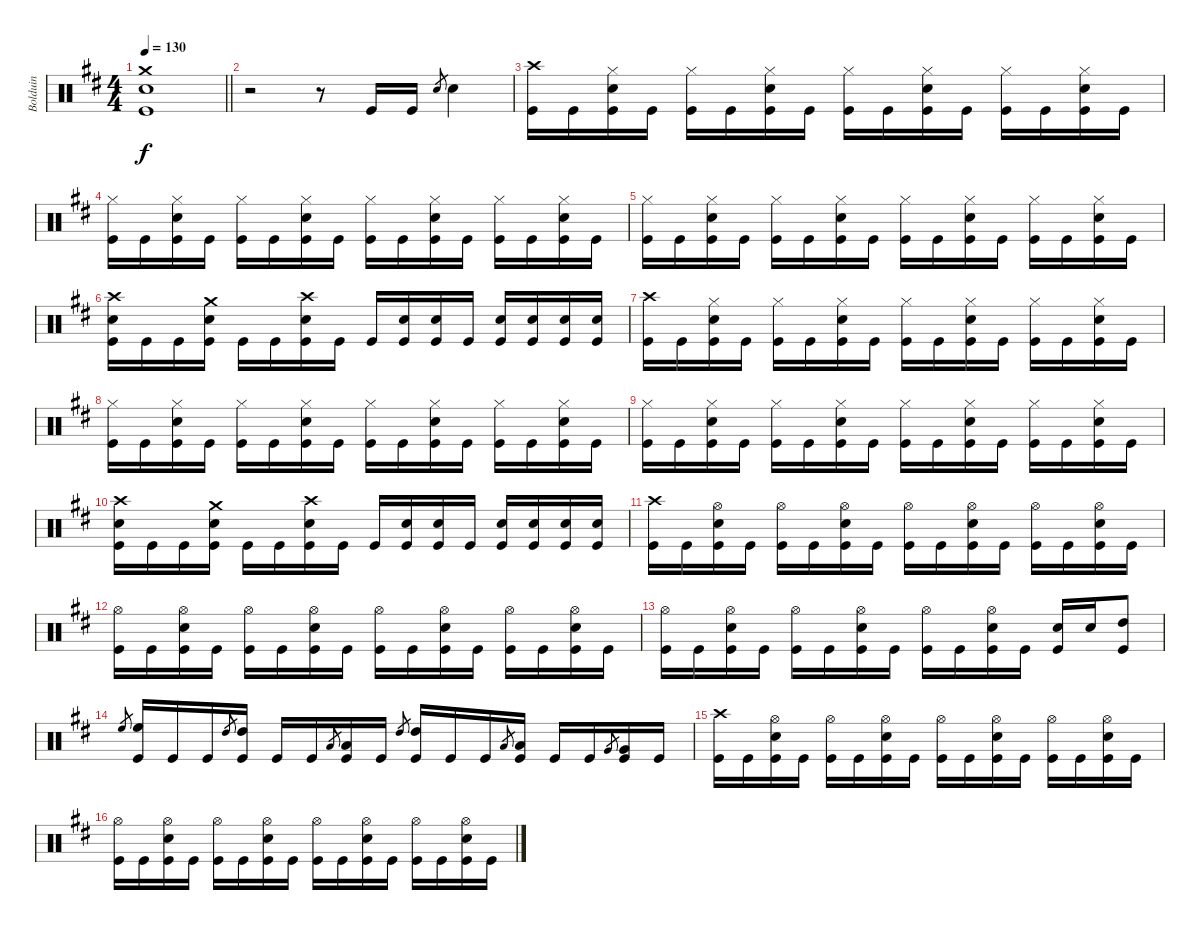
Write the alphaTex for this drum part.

\track ("Bolduin" "Bolduin") {instrument percussion}
\staff {score}
\articulation defaults
\ts (4 4)
\tempo 130
\clef neutral
\barLineRight lightlight
\ks bminor
("Kick (hit)" "Snare (hit) 2" "Crash medium (hit)").1{dy f} |
r.2 r.8 "Kick (hit)".16 "Kick (hit)".16 "Snare (hit) 2".8{gr} "Snare (hit) 2".4 |
("Crash high (hit)" "Kick (hit)").16 "Kick (hit)".16 ("Hi-Hat (closed)" "Kick (hit)" "Snare (hit) 2").16 "Kick (hit)".16 ("Hi-Hat (closed)" "Kick (hit)").16 "Kick (hit)".16 ("Hi-Hat (closed)" "Kick (hit)" "Snare (hit) 2").16 "Kick (hit)".16 ("Hi-Hat (closed)" "Kick (hit)").16 "Kick (hit)".16 ("Hi-Hat (closed)" "Kick (hit)" "Snare (hit) 2").16 "Kick (hit)".16 ("Hi-Hat (closed)" "Kick (hit)").16 "Kick (hit)".16 ("Hi-Hat (closed)" "Kick (hit)" "Snare (hit) 2").16 "Kick (hit)".16 |
("Hi-Hat (closed)" "Kick (hit)").16 "Kick (hit)".16 ("Hi-Hat (closed)" "Kick (hit)" "Snare (hit) 2").16 "Kick (hit)".16 ("Hi-Hat (closed)" "Kick (hit)").16 "Kick (hit)".16 ("Hi-Hat (closed)" "Kick (hit)" "Snare (hit) 2").16 "Kick (hit)".16 ("Hi-Hat (closed)" "Kick (hit)").16 "Kick (hit)".16 ("Hi-Hat (closed)" "Kick (hit)" "Snare (hit) 2").16 "Kick (hit)".16 ("Hi-Hat (closed)" "Kick (hit)").16 "Kick (hit)".16 ("Hi-Hat (closed)" "Kick (hit)" "Snare (hit) 2").16 "Kick (hit)".16 |
("Hi-Hat (closed)" "Kick (hit)").16 "Kick (hit)".16 ("Hi-Hat (closed)" "Kick (hit)" "Snare (hit) 2").16 "Kick (hit)".16 ("Hi-Hat (closed)" "Kick (hit)").16 "Kick (hit)".16 ("Hi-Hat (closed)" "Kick (hit)" "Snare (hit) 2").16 "Kick (hit)".16 ("Hi-Hat (closed)" "Kick (hit)").16 "Kick (hit)".16 ("Hi-Hat (closed)" "Kick (hit)" "Snare (hit) 2").16 "Kick (hit)".16 ("Hi-Hat (closed)" "Kick (hit)").16 "Kick (hit)".16 ("Hi-Hat (closed)" "Kick (hit)" "Snare (hit) 2").16 "Kick (hit)".16 |
("Snare (hit) 2" "Kick (hit)" "Crash high (hit)").16 "Kick (hit)".16 "Kick (hit)".16 ("Crash medium (hit)" "Kick (hit)" "Snare (hit) 2").16 "Kick (hit)".16 "Kick (hit)".16 ("Snare (hit) 2" "Kick (hit)" "Crash high (hit)").16 "Kick (hit)".16 "Kick (hit)".16 ("Snare (hit) 2" "Kick (hit)").16 ("Snare (hit) 2" "Kick (hit)").16 "Kick (hit)".16 ("Snare (hit) 2" "Kick (hit)").16 ("Snare (hit) 2" "Kick (hit)").16 ("Snare (hit) 2" "Kick (hit)").16 ("Snare (hit) 2" "Kick (hit)").16 |
("Crash high (hit)" "Kick (hit)").16 "Kick (hit)".16 ("Hi-Hat (closed)" "Kick (hit)" "Snare (hit) 2").16 "Kick (hit)".16 ("Hi-Hat (closed)" "Kick (hit)").16 "Kick (hit)".16 ("Hi-Hat (closed)" "Kick (hit)" "Snare (hit) 2").16 "Kick (hit)".16 ("Hi-Hat (closed)" "Kick (hit)").16 "Kick (hit)".16 ("Hi-Hat (closed)" "Kick (hit)" "Snare (hit) 2").16 "Kick (hit)".16 ("Hi-Hat (closed)" "Kick (hit)").16 "Kick (hit)".16 ("Hi-Hat (closed)" "Kick (hit)" "Snare (hit) 2").16 "Kick (hit)".16 |
("Hi-Hat (closed)" "Kick (hit)").16 "Kick (hit)".16 ("Hi-Hat (closed)" "Kick (hit)" "Snare (hit) 2").16 "Kick (hit)".16 ("Hi-Hat (closed)" "Kick (hit)").16 "Kick (hit)".16 ("Hi-Hat (closed)" "Kick (hit)" "Snare (hit) 2").16 "Kick (hit)".16 ("Hi-Hat (closed)" "Kick (hit)").16 "Kick (hit)".16 ("Hi-Hat (closed)" "Kick (hit)" "Snare (hit) 2").16 "Kick (hit)".16 ("Hi-Hat (closed)" "Kick (hit)").16 "Kick (hit)".16 ("Hi-Hat (closed)" "Kick (hit)" "Snare (hit) 2").16 "Kick (hit)".16 |
("Hi-Hat (closed)" "Kick (hit)").16 "Kick (hit)".16 ("Hi-Hat (closed)" "Kick (hit)" "Snare (hit) 2").16 "Kick (hit)".16 ("Hi-Hat (closed)" "Kick (hit)").16 "Kick (hit)".16 ("Hi-Hat (closed)" "Kick (hit)" "Snare (hit) 2").16 "Kick (hit)".16 ("Hi-Hat (closed)" "Kick (hit)").16 "Kick (hit)".16 ("Hi-Hat (closed)" "Kick (hit)" "Snare (hit) 2").16 "Kick (hit)".16 ("Hi-Hat (closed)" "Kick (hit)").16 "Kick (hit)".16 ("Hi-Hat (closed)" "Kick (hit)" "Snare (hit) 2").16 "Kick (hit)".16 |
("Snare (hit) 2" "Kick (hit)" "Crash high (hit)").16 "Kick (hit)".16 "Kick (hit)".16 ("Crash medium (hit)" "Kick (hit)" "Snare (hit) 2").16 "Kick (hit)".16 "Kick (hit)".16 ("Snare (hit) 2" "Kick (hit)" "Crash high (hit)").16 "Kick (hit)".16 "Kick (hit)".16 ("Snare (hit) 2" "Kick (hit)").16 ("Snare (hit) 2" "Kick (hit)").16 "Kick (hit)".16 ("Snare (hit) 2" "Kick (hit)").16 ("Snare (hit) 2" "Kick (hit)").16 ("Snare (hit) 2" "Kick (hit)").16 ("Snare (hit) 2" "Kick (hit)").16 |
("Crash high (hit)" "Kick (hit)").16 "Kick (hit)".16 ("Hi-Hat (open)" "Kick (hit)" "Snare (hit) 2").16 "Kick (hit)".16 ("Hi-Hat (open)" "Kick (hit)").16 "Kick (hit)".16 ("Hi-Hat (open)" "Kick (hit)" "Snare (hit) 2").16 "Kick (hit)".16 ("Hi-Hat (open)" "Kick (hit)").16 "Kick (hit)".16 ("Hi-Hat (open)" "Kick (hit)" "Snare (hit) 2").16 "Kick (hit)".16 ("Hi-Hat (open)" "Kick (hit)").16 "Kick (hit)".16 ("Hi-Hat (open)" "Kick (hit)" "Snare (hit) 2").16 "Kick (hit)".16 |
("Hi-Hat (open)" "Kick (hit)").16 "Kick (hit)".16 ("Hi-Hat (open)" "Kick (hit)" "Snare (hit) 2").16 "Kick (hit)".16 ("Hi-Hat (open)" "Kick (hit)").16 "Kick (hit)".16 ("Hi-Hat (open)" "Kick (hit)" "Snare (hit) 2").16 "Kick (hit)".16 ("Hi-Hat (open)" "Kick (hit)").16 "Kick (hit)".16 ("Hi-Hat (open)" "Kick (hit)" "Snare (hit) 2").16 "Kick (hit)".16 ("Hi-Hat (open)" "Kick (hit)").16 "Kick (hit)".16 ("Hi-Hat (open)" "Kick (hit)" "Snare (hit) 2").16 "Kick (hit)".16 |
("Hi-Hat (open)" "Kick (hit)").16 "Kick (hit)".16 ("Hi-Hat (open)" "Kick (hit)" "Snare (hit) 2").16 "Kick (hit)".16 ("Hi-Hat (open)" "Kick (hit)").16 "Kick (hit)".16 ("Hi-Hat (open)" "Kick (hit)" "Snare (hit) 2").16 "Kick (hit)".16 ("Hi-Hat (open)" "Kick (hit)").16 "Kick (hit)".16 ("Hi-Hat (open)" "Kick (hit)" "Snare (hit) 2").16 "Kick (hit)".16 ("Snare (hit) 2" "Kick (hit)").16 "Snare (hit) 2".16 ("High Tom (hit)" "Kick (hit)").8 |
"High Floor Tom (hit)".8{gr} ("High Floor Tom (hit)" "Kick (hit)").16 "Kick (hit)".16 "Kick (hit)".16 "High Tom (hit)".8{gr} ("High Tom (hit)" "Kick (hit)").16 "Kick (hit)".16 "Kick (hit)".16 "Low Tom (hit)".8{gr} ("Low Tom (hit)" "Kick (hit)").16 "Kick (hit)".16 "High Tom (hit)".8{gr} ("High Tom (hit)" "Kick (hit)").16 "Kick (hit)".16 "Kick (hit)".16 "Low Tom (hit)".8{gr} ("Low Tom (hit)" "Kick (hit)").16 "Kick (hit)".16 "Kick (hit)".16 "Very Low Tom (hit)".8{gr} ("Very Low Tom (hit)" "Kick (hit)").16 "Kick (hit)".16 |
("Crash high (hit)" "Kick (hit)").16 "Kick (hit)".16 ("Hi-Hat (open)" "Kick (hit)" "Snare (hit) 2").16 "Kick (hit)".16 ("Hi-Hat (open)" "Kick (hit)").16 "Kick (hit)".16 ("Hi-Hat (open)" "Kick (hit)" "Snare (hit) 2").16 "Kick (hit)".16 ("Hi-Hat (open)" "Kick (hit)").16 "Kick (hit)".16 ("Hi-Hat (open)" "Kick (hit)" "Snare (hit) 2").16 "Kick (hit)".16 ("Hi-Hat (open)" "Kick (hit)").16 "Kick (hit)".16 ("Hi-Hat (open)" "Kick (hit)" "Snare (hit) 2").16 "Kick (hit)".16 |
("Hi-Hat (open)" "Kick (hit)").16 "Kick (hit)".16 ("Hi-Hat (open)" "Kick (hit)" "Snare (hit) 2").16 "Kick (hit)".16 ("Hi-Hat (open)" "Kick (hit)").16 "Kick (hit)".16 ("Hi-Hat (open)" "Kick (hit)" "Snare (hit) 2").16 "Kick (hit)".16 ("Hi-Hat (open)" "Kick (hit)").16 "Kick (hit)".16 ("Hi-Hat (open)" "Kick (hit)" "Snare (hit) 2").16 "Kick (hit)".16 ("Hi-Hat (open)" "Kick (hit)").16 "Kick (hit)".16 ("Hi-Hat (open)" "Kick (hit)" "Snare (hit) 2").16 "Kick (hit)".16
